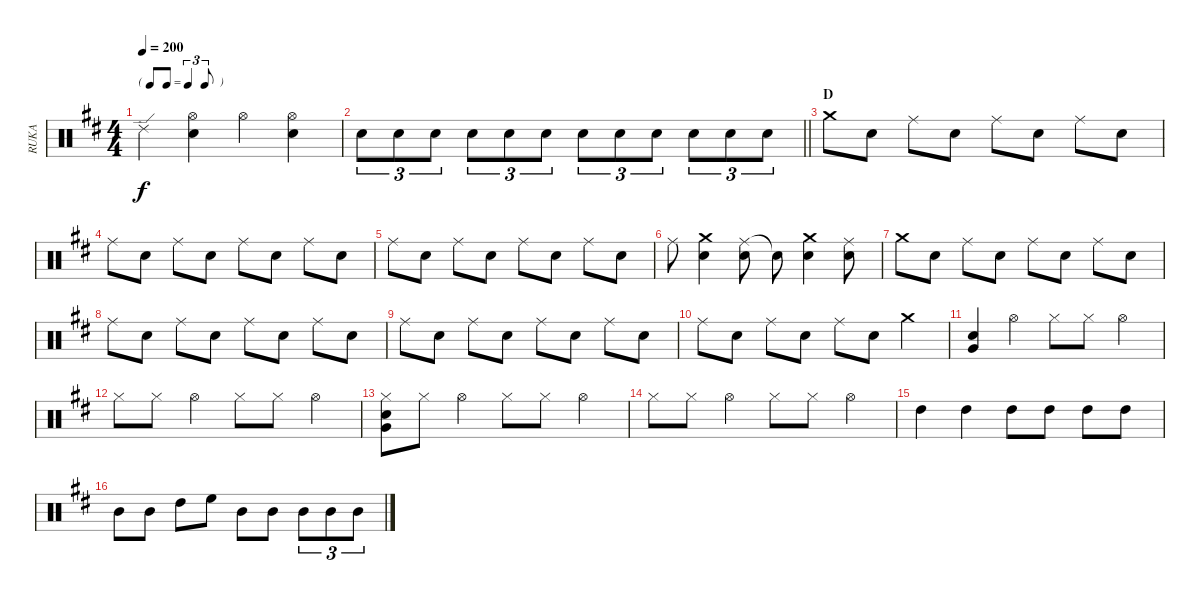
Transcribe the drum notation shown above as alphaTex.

\track ("RUKA" "RUKA") {instrument percussion}
\staff {score}
\articulation defaults
\ts (4 4)
\tf triplet8th
\tempo 200
\clef neutral
\ks d "Ride (edge) 2".4{dy f}
("Hi-Hat (open)" "Snare (hit) 2").4 "Hi-Hat (open)".4 ("Hi-Hat (open)" "Snare (hit) 2").4 |
\barLineRight lightlight "Snare (hit) 2".8{tu (3 2)} "Snare (hit) 2".8{tu (3 2)} "Snare (hit) 2".8{tu (3 2)} "Snare (hit) 2".8{tu (3 2)} "Snare (hit) 2".8{tu (3 2)} "Snare (hit) 2".8{tu (3 2)} "Snare (hit) 2".8{tu (3 2)} "Snare (hit) 2".8{tu (3 2)} "Snare (hit) 2".8{tu (3 2)} "Snare (hit) 2".8{tu (3 2)} "Snare (hit) 2".8{tu (3 2)} "Snare (hit) 2".8{tu (3 2)}
|
\section ("" "D")
"Crash medium (hit)".8 "Snare (hit) 2".8 "Ride (middle)".8 "Snare (hit) 2".8 "Ride (middle)".8 "Snare (hit) 2".8 "Ride (middle)".8 "Snare (hit) 2".8 |
"Ride (middle)".8 "Snare (hit) 2".8 "Ride (middle)".8 "Snare (hit) 2".8 "Ride (middle)".8 "Snare (hit) 2".8 "Ride (middle)".8 "Snare (hit) 2".8 |
"Ride (middle)".8 "Snare (hit) 2".8 "Ride (middle)".8 "Snare (hit) 2".8 "Ride (middle)".8 "Snare (hit) 2".8 "Ride (middle)".8 "Snare (hit) 2".8 |
"Ride (middle)".8 ("Crash medium (hit)" "Snare (hit) 2").4 ("Ride (middle)" "Snare (hit) 2").8 "Snare (hit)"{t}.8 ("Crash medium (hit)" "Snare (hit) 2").4 ("Ride (middle)" "Snare (hit) 2").8 |
"Crash medium (hit)".8 "Snare (hit) 2".8 "Ride (middle)".8 "Snare (hit) 2".8 "Ride (middle)".8 "Snare (hit) 2".8 "Ride (middle)".8 "Snare (hit) 2".8 |
"Ride (middle)".8 "Snare (hit) 2".8 "Ride (middle)".8 "Snare (hit) 2".8 "Ride (middle)".8 "Snare (hit) 2".8 "Ride (middle)".8 "Snare (hit) 2".8 |
"Ride (middle)".8 "Snare (hit) 2".8 "Ride (middle)".8 "Snare (hit) 2".8 "Ride (middle)".8 "Snare (hit) 2".8 "Ride (middle)".8 "Snare (hit) 2".8 |
"Ride (middle)".8 "Snare (hit) 2".8 "Ride (middle)".8 "Snare (hit) 2".8 "Ride (middle)".8 "Snare (hit) 2".8 "Crash medium (hit)".4 |
("Snare (hit) 2" "Very Low Tom (hit)").4 "Hi-Hat (open)".4 "Hi-Hat (closed)".8 "Hi-Hat (closed)".8 "Hi-Hat (open)".4 |
"Hi-Hat (closed)".8 "Hi-Hat (closed)".8 "Hi-Hat (open)".4 "Hi-Hat (closed)".8 "Hi-Hat (closed)".8 "Hi-Hat (open)".4 |
("Hi-Hat (closed)" "Snare (hit) 2" "Very Low Tom (hit)").8 "Hi-Hat (closed)".8 "Hi-Hat (open)".4 "Hi-Hat (closed)".8 "Hi-Hat (closed)".8 "Hi-Hat (open)".4 |
"Hi-Hat (closed)".8 "Hi-Hat (closed)".8 "Hi-Hat (open)".4 "Hi-Hat (closed)".8 "Hi-Hat (closed)".8 "Hi-Hat (open)".4 |
"High Tom (hit)".4 "High Tom (hit)".4 "High Tom (hit)".8 "High Tom (hit)".8 "High Tom (hit)".8 "High Tom (hit)".8 |
"Mid Tom (hit)".8 "Mid Tom (hit)".8 "High Tom (hit)".8 "High Floor Tom (hit)".8 "Mid Tom (hit)".8 "Mid Tom (hit)".8 "Mid Tom (hit)".8{tu (3 2)} "Mid Tom (hit)".8{tu (3 2)} "Mid Tom (hit)".8{tu (3 2)}
